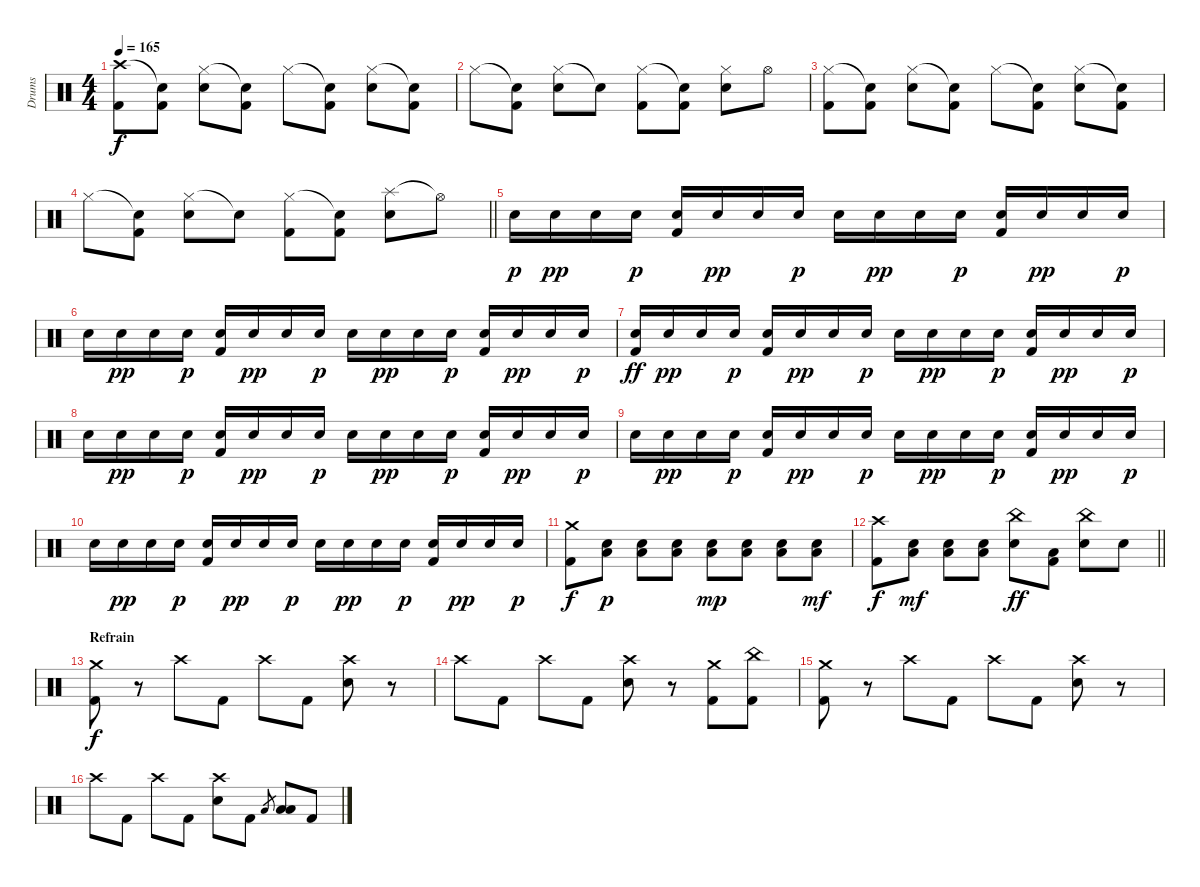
\track ("Drums" "Drums") {instrument percussion}
\staff {score}
\articulation defaults
\ts (4 4)
\tempo 165
\clef neutral
\ks c
("Crash high (hit)" "Kick (hit) 2").8{dy f} ("Snare (hit)"{t} "Kick (hit) 2").8 ("Hi-Hat (closed)" "Electric Snare (hit)").8 ("Snare (hit)"{t} "Kick (hit) 2").8 "Hi-Hat (closed)".8 ("Snare (hit)"{t} "Kick (hit) 2").8 ("Hi-Hat (closed)" "Electric Snare (hit)").8 ("Snare (hit)"{t} "Kick (hit) 2").8 |
"Hi-Hat (closed)".8 ("Snare (hit)"{t} "Kick (hit) 2").8 ("Hi-Hat (closed)" "Electric Snare (hit)").8 "Snare (hit)"{t}.8 ("Hi-Hat (closed)" "Kick (hit) 2").8 ("Snare (hit)"{t} "Kick (hit) 2").8 ("Hi-Hat (closed)" "Electric Snare (hit)").8 "Hi-Hat (open)".8 |
("Hi-Hat (closed)" "Kick (hit) 2").8 ("Snare (hit)"{t} "Kick (hit) 2").8 ("Hi-Hat (closed)" "Electric Snare (hit)").8 ("Snare (hit)"{t} "Kick (hit) 2").8 "Hi-Hat (closed)".8 ("Snare (hit)"{t} "Kick (hit) 2").8 ("Hi-Hat (closed)" "Electric Snare (hit)").8 ("Snare (hit)"{t} "Kick (hit) 2").8 |
\barLineRight lightlight "Hi-Hat (closed)".8
("Snare (hit)"{t} "Kick (hit) 2").8 ("Hi-Hat (closed)" "Electric Snare (hit)").8 "Snare (hit)"{t}.8 ("Hi-Hat (closed)" "Kick (hit) 2").8 ("Snare (hit)"{t} "Kick (hit) 2").8 ("Splash (hit)" "Electric Snare (hit)").8 "Hi-Hat (open)"{t}.8 |
\section ("" "")
"Electric Snare (hit)".16{dy p} "Electric Snare (hit)".16{dy pp} "Electric Snare (hit)".16 "Electric Snare (hit)".16{dy p} ("Electric Snare (hit)" "Kick (hit) 2").16 "Electric Snare (hit)".16{dy pp} "Electric Snare (hit)".16 "Electric Snare (hit)".16{dy p} "Electric Snare (hit)".16 "Electric Snare (hit)".16{dy pp} "Electric Snare (hit)".16 "Electric Snare (hit)".16{dy p} ("Electric Snare (hit)" "Kick (hit) 2").16 "Electric Snare (hit)".16{dy pp} "Electric Snare (hit)".16 "Electric Snare (hit)".16{dy p} |
"Electric Snare (hit)".16 "Electric Snare (hit)".16{dy pp} "Electric Snare (hit)".16 "Electric Snare (hit)".16{dy p} ("Electric Snare (hit)" "Kick (hit) 2").16 "Electric Snare (hit)".16{dy pp} "Electric Snare (hit)".16 "Electric Snare (hit)".16{dy p} "Electric Snare (hit)".16 "Electric Snare (hit)".16{dy pp} "Electric Snare (hit)".16 "Electric Snare (hit)".16{dy p} ("Electric Snare (hit)" "Kick (hit) 2").16 "Electric Snare (hit)".16{dy pp} "Electric Snare (hit)".16 "Electric Snare (hit)".16{dy p} |
("Electric Snare (hit)" "Kick (hit) 2").16{dy ff} "Electric Snare (hit)".16{dy pp} "Electric Snare (hit)".16 "Electric Snare (hit)".16{dy p} ("Electric Snare (hit)" "Kick (hit) 2").16 "Electric Snare (hit)".16{dy pp} "Electric Snare (hit)".16 "Electric Snare (hit)".16{dy p} "Electric Snare (hit)".16 "Electric Snare (hit)".16{dy pp} "Electric Snare (hit)".16 "Electric Snare (hit)".16{dy p} ("Electric Snare (hit)" "Kick (hit) 2").16 "Electric Snare (hit)".16{dy pp} "Electric Snare (hit)".16 "Electric Snare (hit)".16{dy p} |
"Electric Snare (hit)".16 "Electric Snare (hit)".16{dy pp} "Electric Snare (hit)".16 "Electric Snare (hit)".16{dy p} ("Electric Snare (hit)" "Kick (hit) 2").16 "Electric Snare (hit)".16{dy pp} "Electric Snare (hit)".16 "Electric Snare (hit)".16{dy p} "Electric Snare (hit)".16 "Electric Snare (hit)".16{dy pp} "Electric Snare (hit)".16 "Electric Snare (hit)".16{dy p} ("Electric Snare (hit)" "Kick (hit) 2").16 "Electric Snare (hit)".16{dy pp} "Electric Snare (hit)".16 "Electric Snare (hit)".16{dy p} |
"Electric Snare (hit)".16 "Electric Snare (hit)".16{dy pp} "Electric Snare (hit)".16 "Electric Snare (hit)".16{dy p} ("Electric Snare (hit)" "Kick (hit) 2").16 "Electric Snare (hit)".16{dy pp} "Electric Snare (hit)".16 "Electric Snare (hit)".16{dy p} "Electric Snare (hit)".16 "Electric Snare (hit)".16{dy pp} "Electric Snare (hit)".16 "Electric Snare (hit)".16{dy p} ("Electric Snare (hit)" "Kick (hit) 2").16 "Electric Snare (hit)".16{dy pp} "Electric Snare (hit)".16 "Electric Snare (hit)".16{dy p} |
"Electric Snare (hit)".16 "Electric Snare (hit)".16{dy pp} "Electric Snare (hit)".16 "Electric Snare (hit)".16{dy p} ("Electric Snare (hit)" "Kick (hit) 2").16 "Electric Snare (hit)".16{dy pp} "Electric Snare (hit)".16 "Electric Snare (hit)".16{dy p} "Electric Snare (hit)".16 "Electric Snare (hit)".16{dy pp} "Electric Snare (hit)".16 "Electric Snare (hit)".16{dy p} ("Electric Snare (hit)" "Kick (hit) 2").16 "Electric Snare (hit)".16{dy pp} "Electric Snare (hit)".16 "Electric Snare (hit)".16{dy p} |
("Crash medium (hit)" "Kick (hit) 2").8{dy f} ("Electric Snare (hit)" "Low Floor Tom (hit)").8{dy p} ("Electric Snare (hit)" "Low Floor Tom (hit)").8 ("Electric Snare (hit)" "Low Floor Tom (hit)").8 ("Electric Snare (hit)" "Low Floor Tom (hit)").8{dy mp} ("Electric Snare (hit)" "Low Floor Tom (hit)").8 ("Electric Snare (hit)" "Low Floor Tom (hit)").8 ("Electric Snare (hit)" "Low Floor Tom (hit)").8{dy mf} |
\barLineRight lightlight
("Crash high (hit)" "Kick (hit) 2").8{dy f} ("Electric Snare (hit)" "Low Floor Tom (hit)").8{dy mf} ("Electric Snare (hit)" "Low Floor Tom (hit)").8 ("Electric Snare (hit)" "Low Floor Tom (hit)").8 ("China (hit)" "Electric Snare (hit)").8{dy ff} ("Low Floor Tom (hit)" "Kick (hit) 2").8 ("China (hit)" "Electric Snare (hit)").8 "Electric Snare (hit)".8 |
\section ("" "Refrain")
("Crash medium (hit)" "Kick (hit) 2").8{dy f} r.8 "Crash high (hit)".8 "Kick (hit) 2".8 "Crash high (hit)".8 "Kick (hit) 2".8 ("Crash high (hit)" "Electric Snare (hit)").8 r.8 |
"Crash high (hit)".8 "Kick (hit) 2".8 "Crash high (hit)".8 "Kick (hit) 2".8 ("Crash high (hit)" "Electric Snare (hit)").8 r.8 ("Crash medium (hit)" "Kick (hit) 2").8 ("China (hit)" "Kick (hit) 2").8 |
("Crash medium (hit)" "Kick (hit) 2").8 r.8 "Crash high (hit)".8 "Kick (hit) 2".8 "Crash high (hit)".8 "Kick (hit) 2".8 ("Crash high (hit)" "Electric Snare (hit)").8 r.8 |
"Crash high (hit)".8 "Kick (hit) 2".8 "Crash high (hit)".8 "Kick (hit) 2".8 ("Crash high (hit)" "Electric Snare (hit)").8 "Kick (hit) 2".8 "Low Tom (hit)".8{gr} ("Low Tom (hit)" "Low Floor Tom (hit)").8 "Kick (hit) 2".8
